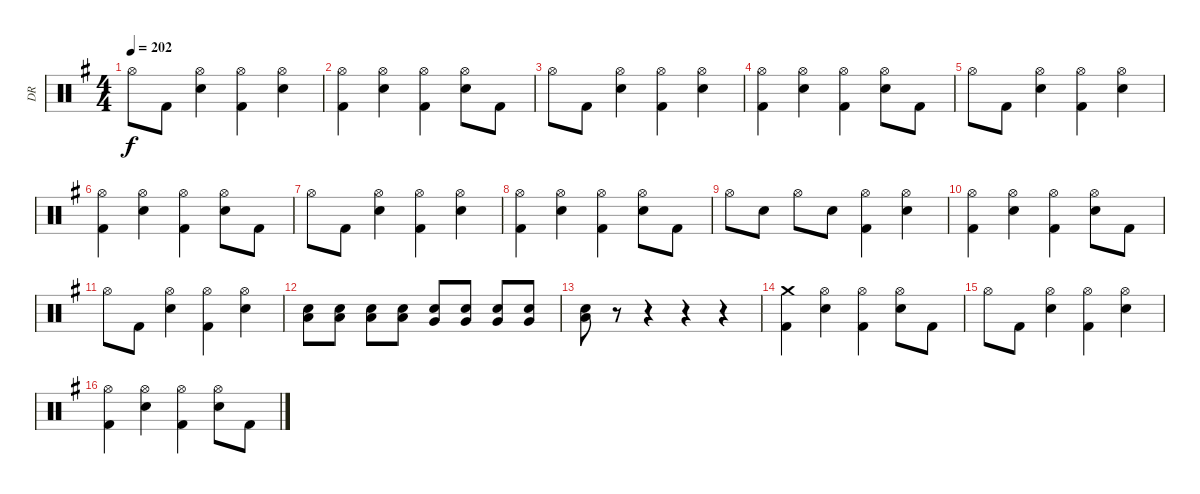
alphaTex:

\track ("DR" "DR") {instrument percussion}
\staff {score}
\articulation defaults
\ts (4 4)
\tempo 202
\clef neutral
\ks g "Hi-Hat (open)".8{dy f} "Kick (hit) 2".8
("Hi-Hat (open)" "Electric Snare (hit)").4 ("Hi-Hat (open)" "Kick (hit) 2").4 ("Hi-Hat (open)" "Electric Snare (hit)").4 |
("Hi-Hat (open)" "Kick (hit) 2").4 ("Hi-Hat (open)" "Electric Snare (hit)").4 ("Hi-Hat (open)" "Kick (hit) 2").4 ("Hi-Hat (open)" "Electric Snare (hit)").8 "Kick (hit) 2".8 |
"Hi-Hat (open)".8 "Kick (hit) 2".8 ("Hi-Hat (open)" "Electric Snare (hit)").4 ("Hi-Hat (open)" "Kick (hit) 2").4 ("Hi-Hat (open)" "Electric Snare (hit)").4 |
("Hi-Hat (open)" "Kick (hit) 2").4 ("Hi-Hat (open)" "Electric Snare (hit)").4 ("Hi-Hat (open)" "Kick (hit) 2").4 ("Hi-Hat (open)" "Electric Snare (hit)").8 "Kick (hit) 2".8 |
"Hi-Hat (open)".8 "Kick (hit) 2".8 ("Hi-Hat (open)" "Electric Snare (hit)").4 ("Hi-Hat (open)" "Kick (hit) 2").4 ("Hi-Hat (open)" "Electric Snare (hit)").4 |
("Hi-Hat (open)" "Kick (hit) 2").4 ("Hi-Hat (open)" "Electric Snare (hit)").4 ("Hi-Hat (open)" "Kick (hit) 2").4 ("Hi-Hat (open)" "Electric Snare (hit)").8 "Kick (hit) 2".8 |
"Hi-Hat (open)".8 "Kick (hit) 2".8 ("Hi-Hat (open)" "Electric Snare (hit)").4 ("Hi-Hat (open)" "Kick (hit) 2").4 ("Hi-Hat (open)" "Electric Snare (hit)").4 |
("Hi-Hat (open)" "Kick (hit) 2").4 ("Hi-Hat (open)" "Electric Snare (hit)").4 ("Hi-Hat (open)" "Kick (hit) 2").4 ("Hi-Hat (open)" "Electric Snare (hit)").8 "Kick (hit) 2".8 |
"Hi-Hat (open)".8 "Electric Snare (hit)".8 "Hi-Hat (open)".8 "Electric Snare (hit)".8 ("Hi-Hat (open)" "Kick (hit) 2").4 ("Hi-Hat (open)" "Electric Snare (hit)").4 |
("Hi-Hat (open)" "Kick (hit) 2").4 ("Hi-Hat (open)" "Electric Snare (hit)").4 ("Hi-Hat (open)" "Kick (hit) 2").4 ("Hi-Hat (open)" "Electric Snare (hit)").8 "Kick (hit) 2".8 |
"Hi-Hat (open)".8 "Kick (hit) 2".8 ("Hi-Hat (open)" "Electric Snare (hit)").4 ("Hi-Hat (open)" "Kick (hit) 2").4 ("Hi-Hat (open)" "Electric Snare (hit)").4 |
("Low Tom (hit)" "Electric Snare (hit)").8 ("Low Tom (hit)" "Electric Snare (hit)").8 ("Low Tom (hit)" "Electric Snare (hit)").8 ("Low Tom (hit)" "Electric Snare (hit)").8 ("Very Low Tom (hit)" "Electric Snare (hit)").8 ("Very Low Tom (hit)" "Electric Snare (hit)").8 ("Very Low Tom (hit)" "Electric Snare (hit)").8 ("Very Low Tom (hit)" "Electric Snare (hit)").8 |
("Low Floor Tom (hit)" "Electric Snare (hit)").8 r.8 r.4 r.4 r.4 |
("Crash medium (hit)" "Kick (hit) 2").4 ("Hi-Hat (open)" "Electric Snare (hit)").4 ("Hi-Hat (open)" "Kick (hit) 2").4 ("Hi-Hat (open)" "Electric Snare (hit)").8 "Kick (hit) 2".8 |
"Hi-Hat (open)".8 "Kick (hit) 2".8 ("Hi-Hat (open)" "Electric Snare (hit)").4 ("Hi-Hat (open)" "Kick (hit) 2").4 ("Hi-Hat (open)" "Electric Snare (hit)").4 |
("Hi-Hat (open)" "Kick (hit) 2").4 ("Hi-Hat (open)" "Electric Snare (hit)").4 ("Hi-Hat (open)" "Kick (hit) 2").4 ("Hi-Hat (open)" "Electric Snare (hit)").8 "Kick (hit) 2".8
